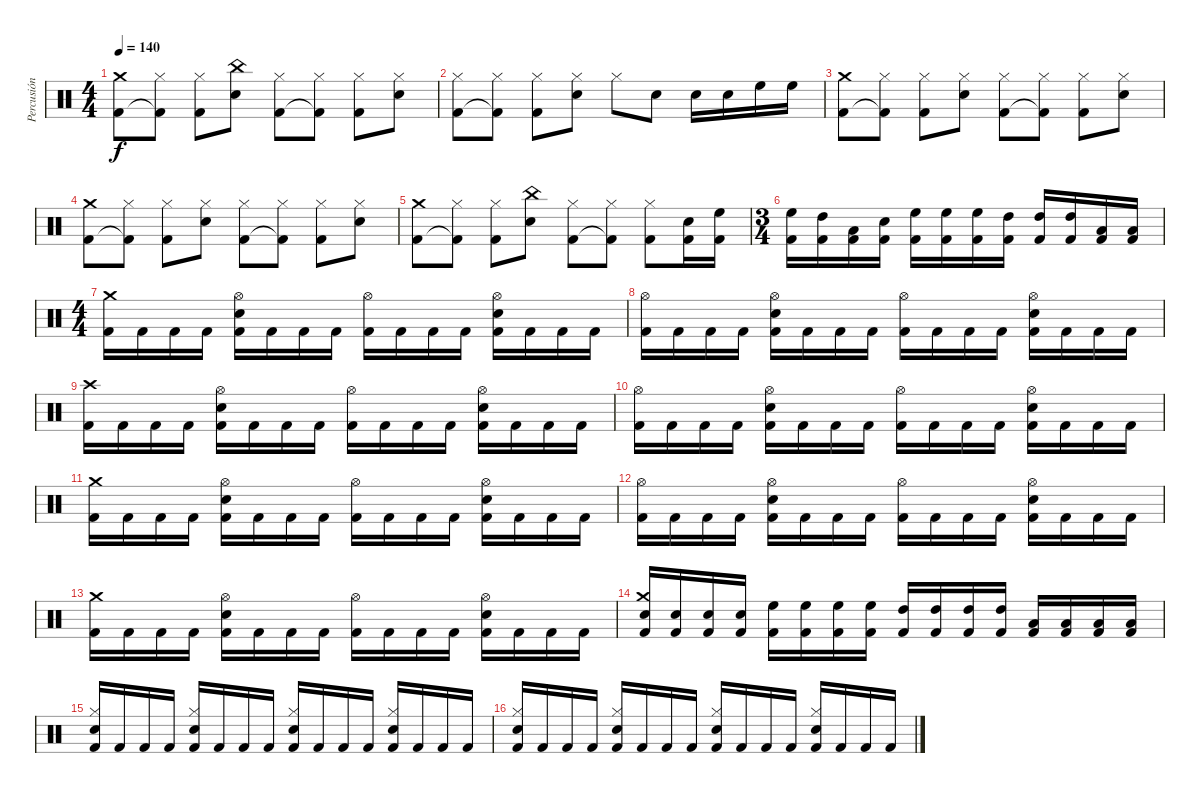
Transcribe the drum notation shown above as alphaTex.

\track ("Percusión" "Percusión") {instrument percussion}
\staff {score}
\articulation defaults
\ts (4 4)
\tempo 140
\clef neutral
\ks c
("Kick (hit) 2" "Crash medium (hit)").8{dy f} ("Kick (hit) 2"{t} "Hi-Hat (closed)").8 ("Kick (hit) 2" "Hi-Hat (closed)").8 ("Electric Snare (hit)" "China (hit)").8 ("Kick (hit) 2" "Hi-Hat (closed)").8 ("Kick (hit) 2"{t} "Hi-Hat (closed)").8 ("Kick (hit) 2" "Hi-Hat (closed)").8 ("Electric Snare (hit)" "Hi-Hat (closed)").8 |
("Kick (hit) 2" "Hi-Hat (closed)").8 ("Kick (hit) 2"{t} "Hi-Hat (closed)").8 ("Kick (hit) 2" "Hi-Hat (closed)").8 ("Electric Snare (hit)" "Hi-Hat (closed)").8 "Hi-Hat (closed)".8 "Electric Snare (hit)".8 "Electric Snare (hit)".16 "Electric Snare (hit)".16 "High Floor Tom (hit)".16 "High Floor Tom (hit)".16 |
("Kick (hit) 2" "Crash medium (hit)").8 ("Kick (hit) 2"{t} "Hi-Hat (closed)").8 ("Kick (hit) 2" "Hi-Hat (closed)").8 ("Electric Snare (hit)" "Hi-Hat (closed)").8 ("Kick (hit) 2" "Hi-Hat (closed)").8 ("Kick (hit) 2"{t} "Hi-Hat (closed)").8 ("Kick (hit) 2" "Hi-Hat (closed)").8 ("Electric Snare (hit)" "Hi-Hat (closed)").8 |
("Kick (hit) 2" "Crash medium (hit)").8 ("Kick (hit) 2"{t} "Hi-Hat (closed)").8 ("Kick (hit) 2" "Hi-Hat (closed)").8 ("Electric Snare (hit)" "Hi-Hat (closed)").8 ("Kick (hit) 2" "Hi-Hat (closed)").8 ("Kick (hit) 2"{t} "Hi-Hat (closed)").8 ("Kick (hit) 2" "Hi-Hat (closed)").8 ("Electric Snare (hit)" "Hi-Hat (closed)").8 |
("Kick (hit) 2" "Crash medium (hit)").8 ("Kick (hit) 2"{t} "Hi-Hat (closed)").8 ("Kick (hit) 2" "Hi-Hat (closed)").8 ("Electric Snare (hit)" "China (hit)").8 ("Kick (hit) 2" "Hi-Hat (closed)").8 ("Kick (hit) 2"{t} "Hi-Hat (closed)").8 ("Kick (hit) 2" "Hi-Hat (closed)").8 ("Kick (hit) 2" "Electric Snare (hit)").16 ("Kick (hit) 2" "High Floor Tom (hit)").16 |
\ts (3 4)
("Kick (hit) 2" "High Floor Tom (hit)").16 ("Kick (hit) 2" "High Tom (hit)").16 ("Kick (hit) 2" "Low Tom (hit)").16 ("Kick (hit) 2" "Electric Snare (hit)").16 ("Kick (hit) 2" "High Floor Tom (hit)").16 ("Kick (hit) 2" "High Floor Tom (hit)").16 ("Kick (hit) 2" "High Floor Tom (hit)").16 ("Kick (hit) 2" "High Tom (hit)").16 ("Kick (hit) 2" "High Tom (hit)").16 ("Kick (hit) 2" "High Tom (hit)").16 ("Kick (hit) 2" "Low Tom (hit)").16 ("Kick (hit) 2" "Low Tom (hit)").16 |
\ts (4 4)
("Kick (hit) 2" "Crash medium (hit)").16 "Kick (hit) 2".16 "Kick (hit) 2".16 "Kick (hit) 2".16 ("Kick (hit) 2" "Electric Snare (hit)" "Hi-Hat (open)").16 "Kick (hit) 2".16 "Kick (hit) 2".16 "Kick (hit) 2".16 ("Kick (hit) 2" "Hi-Hat (open)").16 "Kick (hit) 2".16 "Kick (hit) 2".16 "Kick (hit) 2".16 ("Kick (hit) 2" "Electric Snare (hit)" "Hi-Hat (open)").16 "Kick (hit) 2".16 "Kick (hit) 2".16 "Kick (hit) 2".16 |
("Kick (hit) 2" "Hi-Hat (open)").16 "Kick (hit) 2".16 "Kick (hit) 2".16 "Kick (hit) 2".16 ("Kick (hit) 2" "Electric Snare (hit)" "Hi-Hat (open)").16 "Kick (hit) 2".16 "Kick (hit) 2".16 "Kick (hit) 2".16 ("Kick (hit) 2" "Hi-Hat (open)").16 "Kick (hit) 2".16 "Kick (hit) 2".16 "Kick (hit) 2".16 ("Kick (hit) 2" "Electric Snare (hit)" "Hi-Hat (open)").16 "Kick (hit) 2".16 "Kick (hit) 2".16 "Kick (hit) 2".16 |
("Kick (hit) 2" "Crash high (hit)").16 "Kick (hit) 2".16 "Kick (hit) 2".16 "Kick (hit) 2".16 ("Kick (hit) 2" "Electric Snare (hit)" "Hi-Hat (open)").16 "Kick (hit) 2".16 "Kick (hit) 2".16 "Kick (hit) 2".16 ("Kick (hit) 2" "Hi-Hat (open)").16 "Kick (hit) 2".16 "Kick (hit) 2".16 "Kick (hit) 2".16 ("Kick (hit) 2" "Electric Snare (hit)" "Hi-Hat (open)").16 "Kick (hit) 2".16 "Kick (hit) 2".16 "Kick (hit) 2".16 |
("Kick (hit) 2" "Hi-Hat (open)").16 "Kick (hit) 2".16 "Kick (hit) 2".16 "Kick (hit) 2".16 ("Kick (hit) 2" "Electric Snare (hit)" "Hi-Hat (open)").16 "Kick (hit) 2".16 "Kick (hit) 2".16 "Kick (hit) 2".16 ("Kick (hit) 2" "Hi-Hat (open)").16 "Kick (hit) 2".16 "Kick (hit) 2".16 "Kick (hit) 2".16 ("Kick (hit) 2" "Electric Snare (hit)" "Hi-Hat (open)").16 "Kick (hit) 2".16 "Kick (hit) 2".16 "Kick (hit) 2".16 |
("Kick (hit) 2" "Crash medium (hit)").16 "Kick (hit) 2".16 "Kick (hit) 2".16 "Kick (hit) 2".16 ("Kick (hit) 2" "Electric Snare (hit)" "Hi-Hat (open)").16 "Kick (hit) 2".16 "Kick (hit) 2".16 "Kick (hit) 2".16 ("Kick (hit) 2" "Hi-Hat (open)").16 "Kick (hit) 2".16 "Kick (hit) 2".16 "Kick (hit) 2".16 ("Kick (hit) 2" "Electric Snare (hit)" "Hi-Hat (open)").16 "Kick (hit) 2".16 "Kick (hit) 2".16 "Kick (hit) 2".16 |
("Kick (hit) 2" "Hi-Hat (open)").16 "Kick (hit) 2".16 "Kick (hit) 2".16 "Kick (hit) 2".16 ("Kick (hit) 2" "Electric Snare (hit)" "Hi-Hat (open)").16 "Kick (hit) 2".16 "Kick (hit) 2".16 "Kick (hit) 2".16 ("Kick (hit) 2" "Hi-Hat (open)").16 "Kick (hit) 2".16 "Kick (hit) 2".16 "Kick (hit) 2".16 ("Kick (hit) 2" "Electric Snare (hit)" "Hi-Hat (open)").16 "Kick (hit) 2".16 "Kick (hit) 2".16 "Kick (hit) 2".16 |
("Kick (hit) 2" "Crash medium (hit)").16 "Kick (hit) 2".16 "Kick (hit) 2".16 "Kick (hit) 2".16 ("Kick (hit) 2" "Electric Snare (hit)" "Hi-Hat (open)").16 "Kick (hit) 2".16 "Kick (hit) 2".16 "Kick (hit) 2".16 ("Kick (hit) 2" "Hi-Hat (open)").16 "Kick (hit) 2".16 "Kick (hit) 2".16 "Kick (hit) 2".16 ("Kick (hit) 2" "Electric Snare (hit)" "Hi-Hat (open)").16 "Kick (hit) 2".16 "Kick (hit) 2".16 "Kick (hit) 2".16 |
("Kick (hit) 2" "Electric Snare (hit)" "Crash medium (hit)").16 ("Kick (hit) 2" "Electric Snare (hit)").16 ("Kick (hit) 2" "Electric Snare (hit)").16 ("Kick (hit) 2" "Electric Snare (hit)").16 ("Kick (hit) 2" "High Floor Tom (hit)").16 ("Kick (hit) 2" "High Floor Tom (hit)").16 ("Kick (hit) 2" "High Floor Tom (hit)").16 ("Kick (hit) 2" "High Floor Tom (hit)").16 ("Kick (hit) 2" "High Tom (hit)").16 ("Kick (hit) 2" "High Tom (hit)").16 ("Kick (hit) 2" "High Tom (hit)").16 ("Kick (hit) 2" "High Tom (hit)").16 ("Kick (hit) 2" "Low Tom (hit)").16 ("Kick (hit) 2" "Low Tom (hit)").16 ("Kick (hit) 2" "Low Tom (hit)").16 ("Kick (hit) 2" "Low Tom (hit)").16 |
("Kick (hit) 2" "Electric Snare (hit)" "Hi-Hat (closed)").16 "Kick (hit) 2".16 "Kick (hit) 2".16 "Kick (hit) 2".16 ("Kick (hit) 2" "Electric Snare (hit)" "Hi-Hat (closed)").16 "Kick (hit) 2".16 "Kick (hit) 2".16 "Kick (hit) 2".16 ("Kick (hit) 2" "Electric Snare (hit)" "Hi-Hat (closed)").16 "Kick (hit) 2".16 "Kick (hit) 2".16 "Kick (hit) 2".16 ("Kick (hit) 2" "Electric Snare (hit)" "Hi-Hat (closed)").16 "Kick (hit) 2".16 "Kick (hit) 2".16 "Kick (hit) 2".16 |
("Kick (hit) 2" "Electric Snare (hit)" "Hi-Hat (closed)").16 "Kick (hit) 2".16 "Kick (hit) 2".16 "Kick (hit) 2".16 ("Kick (hit) 2" "Electric Snare (hit)" "Hi-Hat (closed)").16 "Kick (hit) 2".16 "Kick (hit) 2".16 "Kick (hit) 2".16 ("Kick (hit) 2" "Electric Snare (hit)" "Hi-Hat (closed)").16 "Kick (hit) 2".16 "Kick (hit) 2".16 "Kick (hit) 2".16 ("Kick (hit) 2" "Electric Snare (hit)" "Hi-Hat (closed)").16 "Kick (hit) 2".16 "Kick (hit) 2".16 "Kick (hit) 2".16
